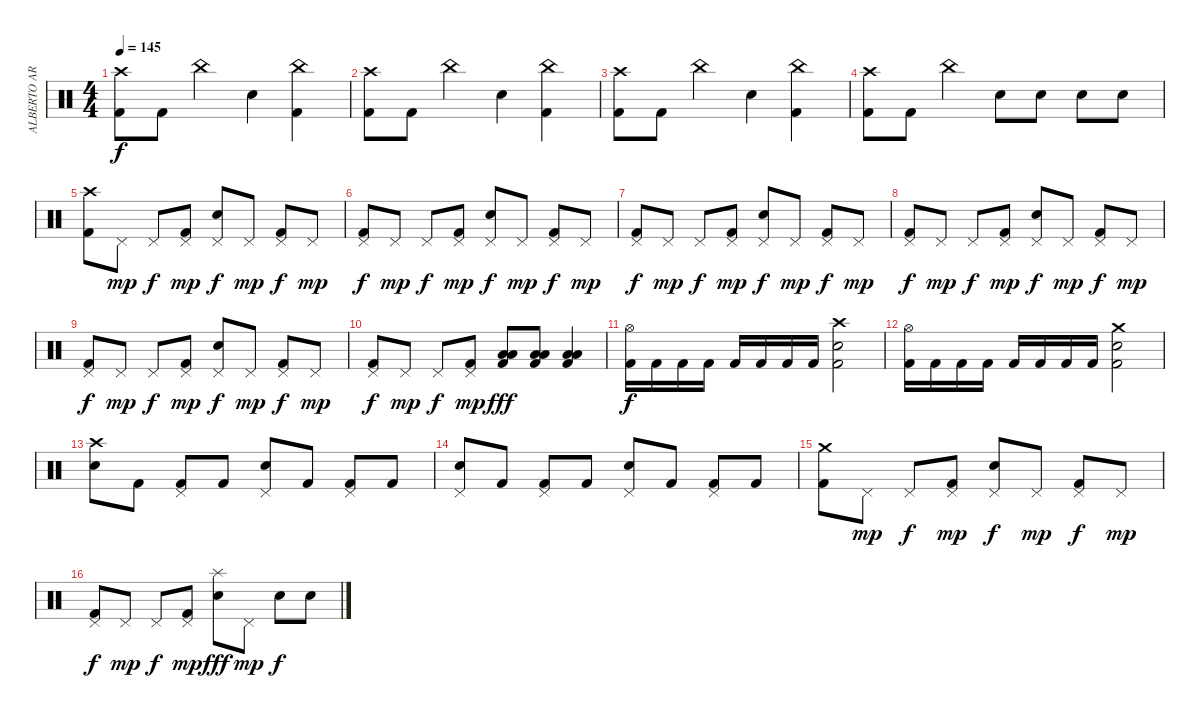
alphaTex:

\track ("ALBERTO ARDINES" "ALBERTO AR") {instrument percussion}
\staff {score}
\articulation defaults
\ts (4 4)
\tempo 145
\clef neutral
\ks c
("Crash high (hit)" "Kick (hit) 2").8{dy f} "Kick (hit) 2".8 "China (hit)".4 "Electric Snare (hit)".4 ("China (hit)" "Kick (hit) 2").4 |
("Crash high (hit)" "Kick (hit) 2").8 "Kick (hit) 2".8 "China (hit)".4 "Electric Snare (hit)".4 ("China (hit)" "Kick (hit) 2").4 |
("Crash high (hit)" "Kick (hit) 2").8 "Kick (hit) 2".8 "China (hit)".4 "Electric Snare (hit)".4 ("China (hit)" "Kick (hit) 2").4 |
("Crash high (hit)" "Kick (hit) 2").8 "Kick (hit) 2".8 "China (hit)".4 "Electric Snare (hit)".8 "Electric Snare (hit)".8 "Electric Snare (hit)".8 "Electric Snare (hit)".8 |
("Crash high (hit)" "Kick (hit) 2").8 "Pedal Hi-Hat (hit)".8{dy mp} "Pedal Hi-Hat (hit)".8{dy f} ("Pedal Hi-Hat (hit)" "Kick (hit) 2").8{dy mp} ("Pedal Hi-Hat (hit)" "Electric Snare (hit)").8{dy f} "Pedal Hi-Hat (hit)".8{dy mp} ("Pedal Hi-Hat (hit)" "Kick (hit) 2").8{dy f} "Pedal Hi-Hat (hit)".8{dy mp} |
("Pedal Hi-Hat (hit)" "Kick (hit) 2").8{dy f} "Pedal Hi-Hat (hit)".8{dy mp} "Pedal Hi-Hat (hit)".8{dy f} ("Pedal Hi-Hat (hit)" "Kick (hit) 2").8{dy mp} ("Pedal Hi-Hat (hit)" "Electric Snare (hit)").8{dy f} "Pedal Hi-Hat (hit)".8{dy mp} ("Pedal Hi-Hat (hit)" "Kick (hit) 2").8{dy f} "Pedal Hi-Hat (hit)".8{dy mp} |
("Pedal Hi-Hat (hit)" "Kick (hit) 2").8{dy f} "Pedal Hi-Hat (hit)".8{dy mp} "Pedal Hi-Hat (hit)".8{dy f} ("Pedal Hi-Hat (hit)" "Kick (hit) 2").8{dy mp} ("Pedal Hi-Hat (hit)" "Electric Snare (hit)").8{dy f} "Pedal Hi-Hat (hit)".8{dy mp} ("Pedal Hi-Hat (hit)" "Kick (hit) 2").8{dy f} "Pedal Hi-Hat (hit)".8{dy mp} |
("Pedal Hi-Hat (hit)" "Kick (hit) 2").8{dy f} "Pedal Hi-Hat (hit)".8{dy mp} "Pedal Hi-Hat (hit)".8{dy f} ("Pedal Hi-Hat (hit)" "Kick (hit) 2").8{dy mp} ("Pedal Hi-Hat (hit)" "Electric Snare (hit)").8{dy f} "Pedal Hi-Hat (hit)".8{dy mp} ("Pedal Hi-Hat (hit)" "Kick (hit) 2").8{dy f} "Pedal Hi-Hat (hit)".8{dy mp} |
("Pedal Hi-Hat (hit)" "Kick (hit) 2").8{dy f} "Pedal Hi-Hat (hit)".8{dy mp} "Pedal Hi-Hat (hit)".8{dy f} ("Pedal Hi-Hat (hit)" "Kick (hit) 2").8{dy mp} ("Pedal Hi-Hat (hit)" "Electric Snare (hit)").8{dy f} "Pedal Hi-Hat (hit)".8{dy mp} ("Pedal Hi-Hat (hit)" "Kick (hit) 2").8{dy f} "Pedal Hi-Hat (hit)".8{dy mp} |
("Pedal Hi-Hat (hit)" "Kick (hit) 2").8{dy f} "Pedal Hi-Hat (hit)".8{dy mp} "Pedal Hi-Hat (hit)".8{dy f} ("Pedal Hi-Hat (hit)" "Kick (hit) 2").8{dy mp} ("Low Floor Tom (hit)" "Low Tom (hit)" "Kick (hit) 2").8{dy fff} ("Low Floor Tom (hit)" "Low Tom (hit)" "Kick (hit) 2").8 ("Low Floor Tom (hit)" "Low Tom (hit)" "Kick (hit) 2").4 |
("Hi-Hat (open)" "Kick (hit) 2").16{dy f} "Kick (hit) 2".16 "Kick (hit) 2".16 "Kick (hit) 2".16 "Kick (hit) 2".16 "Kick (hit) 2".16 "Kick (hit) 2".16 "Kick (hit) 2".16 ("Crash high (hit)" "Electric Snare (hit)" "Kick (hit) 2").2 |
("Hi-Hat (open)" "Kick (hit) 2").16 "Kick (hit) 2".16 "Kick (hit) 2".16 "Kick (hit) 2".16 "Kick (hit) 2".16 "Kick (hit) 2".16 "Kick (hit) 2".16 "Kick (hit) 2".16 ("Crash medium (hit)" "Electric Snare (hit)" "Kick (hit) 2").2 |
("Crash high (hit)" "Electric Snare (hit)").8 "Kick (hit) 2".8 ("Pedal Hi-Hat (hit)" "Kick (hit) 2").8 "Kick (hit) 2".8 ("Pedal Hi-Hat (hit)" "Electric Snare (hit)").8 "Kick (hit) 2".8 ("Pedal Hi-Hat (hit)" "Kick (hit) 2").8 "Kick (hit) 2".8 |
("Pedal Hi-Hat (hit)" "Electric Snare (hit)").8 "Kick (hit) 2".8 ("Pedal Hi-Hat (hit)" "Kick (hit) 2").8 "Kick (hit) 2".8 ("Pedal Hi-Hat (hit)" "Electric Snare (hit)").8 "Kick (hit) 2".8 ("Pedal Hi-Hat (hit)" "Kick (hit) 2").8 "Kick (hit) 2".8 |
("Crash medium (hit)" "Kick (hit) 2").8 "Pedal Hi-Hat (hit)".8{dy mp} "Pedal Hi-Hat (hit)".8{dy f} ("Pedal Hi-Hat (hit)" "Kick (hit) 2").8{dy mp} ("Pedal Hi-Hat (hit)" "Electric Snare (hit)").8{dy f} "Pedal Hi-Hat (hit)".8{dy mp} ("Pedal Hi-Hat (hit)" "Kick (hit) 2").8{dy f} "Pedal Hi-Hat (hit)".8{dy mp} |
("Pedal Hi-Hat (hit)" "Kick (hit) 2").8{dy f} "Pedal Hi-Hat (hit)".8{dy mp} "Pedal Hi-Hat (hit)".8{dy f} ("Pedal Hi-Hat (hit)" "Kick (hit) 2").8{dy mp} ("Splash (hit)" "Electric Snare (hit)").8{dy fff} "Pedal Hi-Hat (hit)".8{dy mp} "Electric Snare (hit)".8{dy f} "Electric Snare (hit)".8
